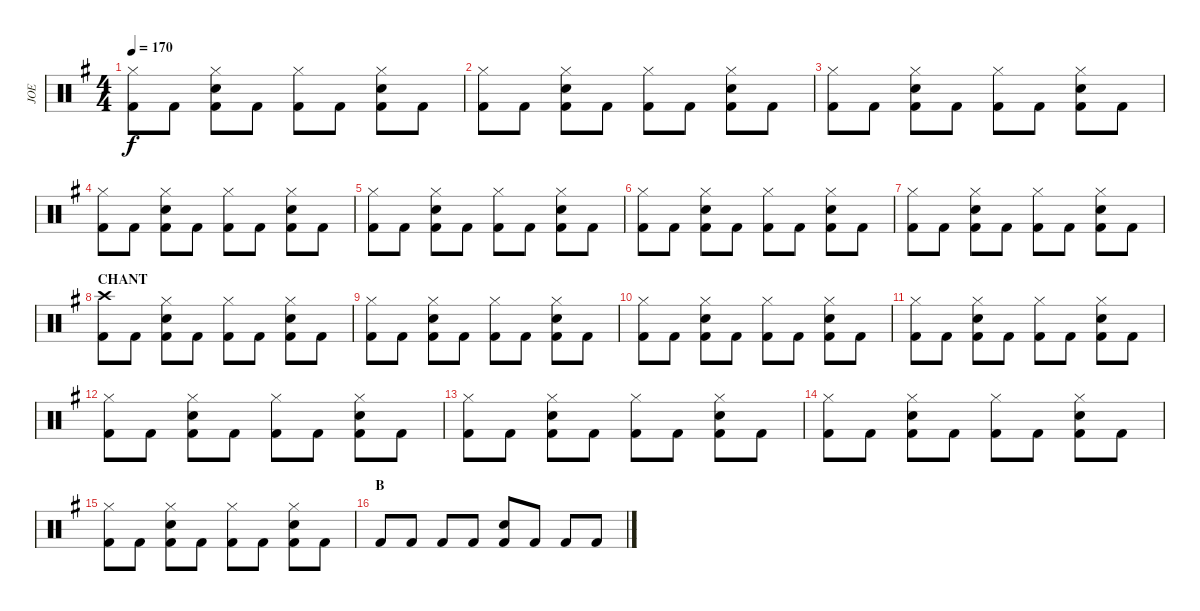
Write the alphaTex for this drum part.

\track ("JOE" "JOE") {instrument percussion}
\staff {score}
\articulation defaults
\ts (4 4)
\tempo 170
\clef neutral
\ks eminor
("Hi-Hat (closed)" "Kick (hit) 2").8{dy f} "Kick (hit) 2".8 ("Hi-Hat (closed)" "Snare (hit) 2" "Kick (hit) 2").8 "Kick (hit) 2".8 ("Hi-Hat (closed)" "Kick (hit) 2").8 "Kick (hit) 2".8 ("Hi-Hat (closed)" "Snare (hit) 2" "Kick (hit) 2").8 "Kick (hit) 2".8 |
("Hi-Hat (closed)" "Kick (hit) 2").8 "Kick (hit) 2".8 ("Hi-Hat (closed)" "Snare (hit) 2" "Kick (hit) 2").8 "Kick (hit) 2".8 ("Hi-Hat (closed)" "Kick (hit) 2").8 "Kick (hit) 2".8 ("Hi-Hat (closed)" "Snare (hit) 2" "Kick (hit) 2").8 "Kick (hit) 2".8 |
("Hi-Hat (closed)" "Kick (hit) 2").8 "Kick (hit) 2".8 ("Hi-Hat (closed)" "Snare (hit) 2" "Kick (hit) 2").8 "Kick (hit) 2".8 ("Hi-Hat (closed)" "Kick (hit) 2").8 "Kick (hit) 2".8 ("Hi-Hat (closed)" "Snare (hit) 2" "Kick (hit) 2").8 "Kick (hit) 2".8 |
("Hi-Hat (closed)" "Kick (hit) 2").8 "Kick (hit) 2".8 ("Hi-Hat (closed)" "Snare (hit) 2" "Kick (hit) 2").8 "Kick (hit) 2".8 ("Hi-Hat (closed)" "Kick (hit) 2").8 "Kick (hit) 2".8 ("Hi-Hat (closed)" "Snare (hit) 2" "Kick (hit) 2").8 "Kick (hit) 2".8 |
("Hi-Hat (closed)" "Kick (hit) 2").8 "Kick (hit) 2".8 ("Hi-Hat (closed)" "Snare (hit) 2" "Kick (hit) 2").8 "Kick (hit) 2".8 ("Hi-Hat (closed)" "Kick (hit) 2").8 "Kick (hit) 2".8 ("Hi-Hat (closed)" "Snare (hit) 2" "Kick (hit) 2").8 "Kick (hit) 2".8 |
("Hi-Hat (closed)" "Kick (hit) 2").8 "Kick (hit) 2".8 ("Hi-Hat (closed)" "Snare (hit) 2" "Kick (hit) 2").8 "Kick (hit) 2".8 ("Hi-Hat (closed)" "Kick (hit) 2").8 "Kick (hit) 2".8 ("Hi-Hat (closed)" "Snare (hit) 2" "Kick (hit) 2").8 "Kick (hit) 2".8 |
("Hi-Hat (closed)" "Kick (hit) 2").8 "Kick (hit) 2".8 ("Hi-Hat (closed)" "Snare (hit) 2" "Kick (hit) 2").8 "Kick (hit) 2".8 ("Hi-Hat (closed)" "Kick (hit) 2").8 "Kick (hit) 2".8 ("Hi-Hat (closed)" "Snare (hit) 2" "Kick (hit) 2").8 "Kick (hit) 2".8 |
\section ("" "CHANT")
("Crash high (hit)" "Kick (hit) 2").8 "Kick (hit) 2".8 ("Hi-Hat (closed)" "Kick (hit) 2" "Snare (hit) 2").8 "Kick (hit) 2".8 ("Hi-Hat (closed)" "Kick (hit) 2").8 "Kick (hit) 2".8 ("Hi-Hat (closed)" "Kick (hit) 2" "Snare (hit) 2").8 "Kick (hit) 2".8 |
("Hi-Hat (closed)" "Kick (hit) 2").8 "Kick (hit) 2".8 ("Hi-Hat (closed)" "Kick (hit) 2" "Snare (hit) 2").8 "Kick (hit) 2".8 ("Hi-Hat (closed)" "Kick (hit) 2").8 "Kick (hit) 2".8 ("Hi-Hat (closed)" "Kick (hit) 2" "Snare (hit) 2").8 "Kick (hit) 2".8 |
("Hi-Hat (closed)" "Kick (hit) 2").8 "Kick (hit) 2".8 ("Hi-Hat (closed)" "Kick (hit) 2" "Snare (hit) 2").8 "Kick (hit) 2".8 ("Hi-Hat (closed)" "Kick (hit) 2").8 "Kick (hit) 2".8 ("Hi-Hat (closed)" "Kick (hit) 2" "Snare (hit) 2").8 "Kick (hit) 2".8 |
("Hi-Hat (closed)" "Kick (hit) 2").8 "Kick (hit) 2".8 ("Hi-Hat (closed)" "Kick (hit) 2" "Snare (hit) 2").8 "Kick (hit) 2".8 ("Hi-Hat (closed)" "Kick (hit) 2").8 "Kick (hit) 2".8 ("Hi-Hat (closed)" "Kick (hit) 2" "Snare (hit) 2").8 "Kick (hit) 2".8 |
("Hi-Hat (closed)" "Kick (hit) 2").8 "Kick (hit) 2".8 ("Hi-Hat (closed)" "Kick (hit) 2" "Snare (hit) 2").8 "Kick (hit) 2".8 ("Hi-Hat (closed)" "Kick (hit) 2").8 "Kick (hit) 2".8 ("Hi-Hat (closed)" "Kick (hit) 2" "Snare (hit) 2").8 "Kick (hit) 2".8 |
("Hi-Hat (closed)" "Kick (hit) 2").8 "Kick (hit) 2".8 ("Hi-Hat (closed)" "Kick (hit) 2" "Snare (hit) 2").8 "Kick (hit) 2".8 ("Hi-Hat (closed)" "Kick (hit) 2").8 "Kick (hit) 2".8 ("Hi-Hat (closed)" "Kick (hit) 2" "Snare (hit) 2").8 "Kick (hit) 2".8 |
("Hi-Hat (closed)" "Kick (hit) 2").8 "Kick (hit) 2".8 ("Hi-Hat (closed)" "Kick (hit) 2" "Snare (hit) 2").8 "Kick (hit) 2".8 ("Hi-Hat (closed)" "Kick (hit) 2").8 "Kick (hit) 2".8 ("Hi-Hat (closed)" "Kick (hit) 2" "Snare (hit) 2").8 "Kick (hit) 2".8 |
("Hi-Hat (closed)" "Kick (hit) 2").8 "Kick (hit) 2".8 ("Hi-Hat (closed)" "Kick (hit) 2" "Snare (hit) 2").8 "Kick (hit) 2".8 ("Hi-Hat (closed)" "Kick (hit) 2").8 "Kick (hit) 2".8 ("Hi-Hat (closed)" "Kick (hit) 2" "Snare (hit) 2").8 "Kick (hit) 2".8 |
\section ("" "B")
"Kick (hit) 2".8 "Kick (hit) 2".8 "Kick (hit) 2".8 "Kick (hit) 2".8 ("Snare (hit) 2" "Kick (hit) 2").8 "Kick (hit) 2".8 "Kick (hit) 2".8 "Kick (hit) 2".8
